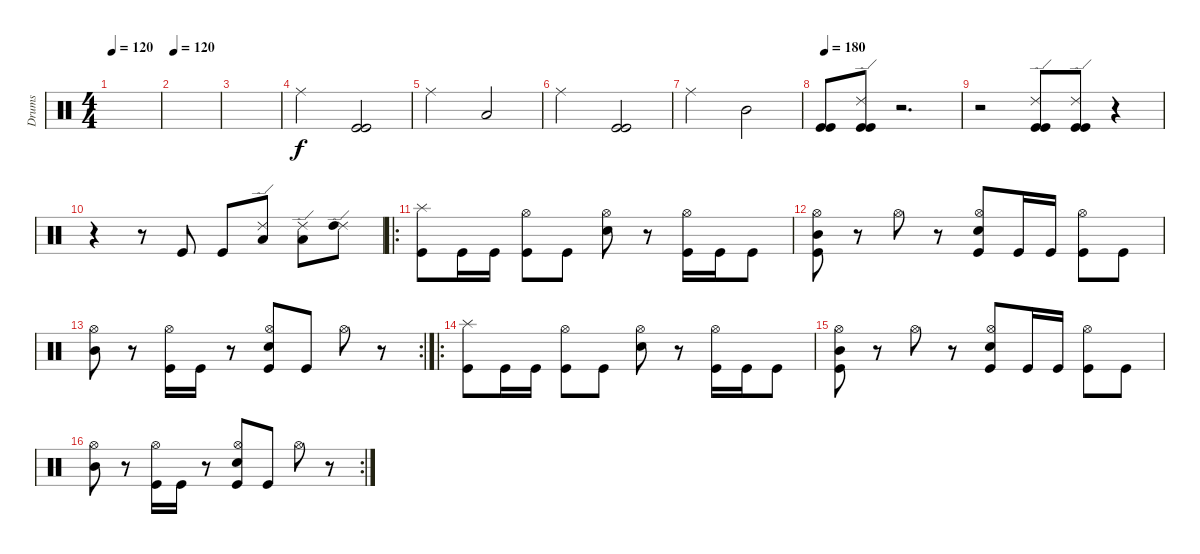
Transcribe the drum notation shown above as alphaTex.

\track ("Drums" "Drums") {instrument percussion}
\staff {score}
\articulation defaults
\ts (4 4)
\tempo 120
\clef neutral
\ks c
|
\tempo 120
|
|
"Ride (middle)".2 ("Kick (hit)" "Kick (hit)").2 |
"Ride (middle)".2 "Low Tom (hit)".2 |
"Ride (middle)".2 ("Kick (hit)" "Kick (hit)").2 |
"Ride (middle)".2 "Mid Tom (hit)".2 |
\tempo 180
("Kick (hit)" "Kick (hit)").8 ("Ride (edge) 2" "Kick (hit)" "Kick (hit)").8 r.2{d} |
r.2 ("Ride (edge) 2" "Kick (hit)" "Kick (hit)").8 ("Ride (edge) 2" "Kick (hit)" "Kick (hit)").8 r.4 |
r.4 r.8 "Kick (hit)".8 "Kick (hit)".8 ("Ride (edge) 2" "Low Tom (hit)").8 ("Ride (edge) 2" "Low Tom (hit)").8 ("Ride (edge) 2" "High Tom (hit)").8 |
\ro
("Splash (hit)" "Kick (hit)").8 "Kick (hit)".16 "Kick (hit)".16 ("Hi-Hat (open)" "Kick (hit)").8 "Kick (hit)".8 ("Hi-Hat (open)" "Snare (hit) 2").8 r.8 ("Hi-Hat (open)" "Kick (hit)").16 "Kick (hit)".16 "Kick (hit)".8 |
("Hi-Hat (open)" "Mid Tom (hit)" "Kick (hit)").8 r.8 "Hi-Hat (open)".8 r.8 ("Hi-Hat (open)" "Snare (hit) 2" "Kick (hit)").8 "Kick (hit)".16 "Kick (hit)".16 ("Hi-Hat (open)" "Kick (hit)").8 "Kick (hit)".8 |
\rc 2
("Hi-Hat (open)" "Mid Tom (hit)").8 r.8 ("Hi-Hat (open)" "Kick (hit)").16 "Kick (hit)".16 r.8 ("Hi-Hat (open)" "Snare (hit) 2" "Kick (hit)").8 "Kick (hit)".8 "Hi-Hat (open)".8 r.8 |
\ro
("Splash (hit)" "Kick (hit)").8 "Kick (hit)".16 "Kick (hit)".16 ("Hi-Hat (open)" "Kick (hit)").8 "Kick (hit)".8 ("Hi-Hat (open)" "Snare (hit) 2").8 r.8 ("Hi-Hat (open)" "Kick (hit)").16 "Kick (hit)".16 "Kick (hit)".8 |
("Hi-Hat (open)" "Mid Tom (hit)" "Kick (hit)").8 r.8 "Hi-Hat (open)".8 r.8 ("Hi-Hat (open)" "Snare (hit) 2" "Kick (hit)").8 "Kick (hit)".16 "Kick (hit)".16 ("Hi-Hat (open)" "Kick (hit)").8 "Kick (hit)".8 |
\rc 2
("Hi-Hat (open)" "Mid Tom (hit)").8 r.8 ("Hi-Hat (open)" "Kick (hit)").16 "Kick (hit)".16 r.8 ("Hi-Hat (open)" "Snare (hit) 2" "Kick (hit)").8 "Kick (hit)".8 "Hi-Hat (open)".8 r.8
